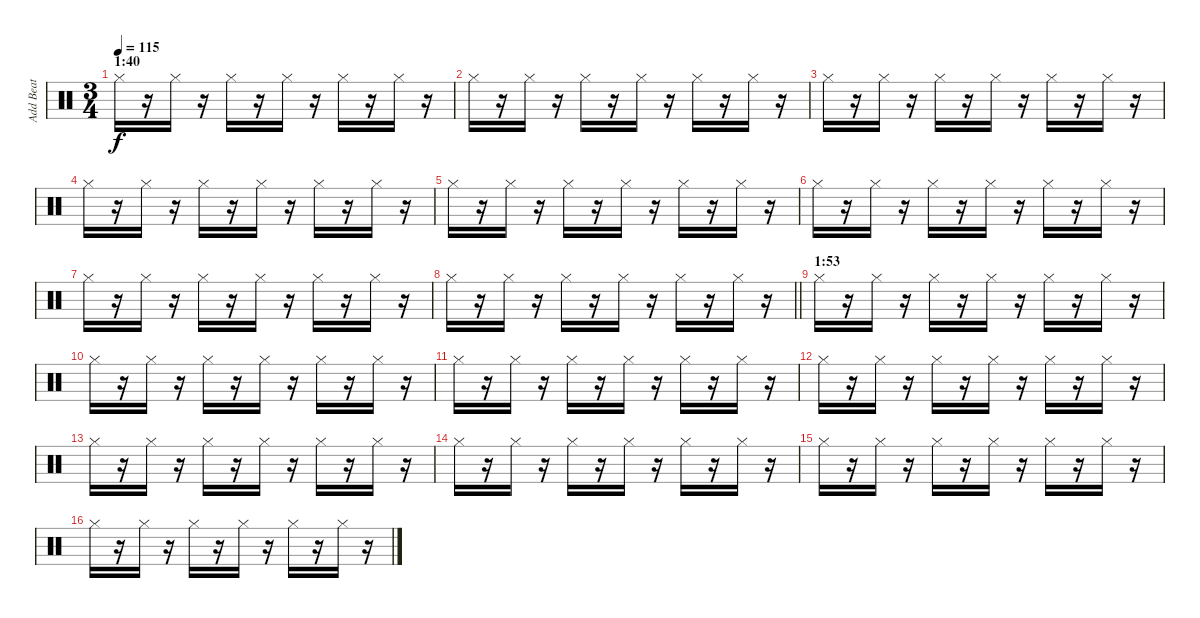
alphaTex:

\track ("Add Beat" "Add Beat") {instrument percussion}
\staff {score}
\articulation defaults
\ts (3 4)
\section ("" "1:40")
\tempo 115
\clef neutral
\ks c "Hi-Hat (closed)".16{dy f}
r.16 "Hi-Hat (closed)".16 r.16 "Hi-Hat (closed)".16 r.16 "Hi-Hat (closed)".16 r.16 "Hi-Hat (closed)".16 r.16 "Hi-Hat (closed)".16 r.16 |
"Hi-Hat (closed)".16 r.16 "Hi-Hat (closed)".16 r.16 "Hi-Hat (closed)".16 r.16 "Hi-Hat (closed)".16 r.16 "Hi-Hat (closed)".16 r.16 "Hi-Hat (closed)".16 r.16 |
"Hi-Hat (closed)".16 r.16 "Hi-Hat (closed)".16 r.16 "Hi-Hat (closed)".16 r.16 "Hi-Hat (closed)".16 r.16 "Hi-Hat (closed)".16 r.16 "Hi-Hat (closed)".16 r.16 |
"Hi-Hat (closed)".16 r.16 "Hi-Hat (closed)".16 r.16 "Hi-Hat (closed)".16 r.16 "Hi-Hat (closed)".16 r.16 "Hi-Hat (closed)".16 r.16 "Hi-Hat (closed)".16 r.16 |
"Hi-Hat (closed)".16 r.16 "Hi-Hat (closed)".16 r.16 "Hi-Hat (closed)".16 r.16 "Hi-Hat (closed)".16 r.16 "Hi-Hat (closed)".16 r.16 "Hi-Hat (closed)".16 r.16 |
"Hi-Hat (closed)".16 r.16 "Hi-Hat (closed)".16 r.16 "Hi-Hat (closed)".16 r.16 "Hi-Hat (closed)".16 r.16 "Hi-Hat (closed)".16 r.16 "Hi-Hat (closed)".16 r.16 |
"Hi-Hat (closed)".16 r.16 "Hi-Hat (closed)".16 r.16 "Hi-Hat (closed)".16 r.16 "Hi-Hat (closed)".16 r.16 "Hi-Hat (closed)".16 r.16 "Hi-Hat (closed)".16 r.16 |
\barLineRight lightlight "Hi-Hat (closed)".16
r.16 "Hi-Hat (closed)".16 r.16 "Hi-Hat (closed)".16 r.16 "Hi-Hat (closed)".16 r.16 "Hi-Hat (closed)".16 r.16 "Hi-Hat (closed)".16 r.16 |
\section ("" "1:53")
"Hi-Hat (closed)".16 r.16 "Hi-Hat (closed)".16 r.16 "Hi-Hat (closed)".16 r.16 "Hi-Hat (closed)".16 r.16 "Hi-Hat (closed)".16 r.16 "Hi-Hat (closed)".16 r.16 |
"Hi-Hat (closed)".16 r.16 "Hi-Hat (closed)".16 r.16 "Hi-Hat (closed)".16 r.16 "Hi-Hat (closed)".16 r.16 "Hi-Hat (closed)".16 r.16 "Hi-Hat (closed)".16 r.16 |
"Hi-Hat (closed)".16 r.16 "Hi-Hat (closed)".16 r.16 "Hi-Hat (closed)".16 r.16 "Hi-Hat (closed)".16 r.16 "Hi-Hat (closed)".16 r.16 "Hi-Hat (closed)".16 r.16 |
"Hi-Hat (closed)".16 r.16 "Hi-Hat (closed)".16 r.16 "Hi-Hat (closed)".16 r.16 "Hi-Hat (closed)".16 r.16 "Hi-Hat (closed)".16 r.16 "Hi-Hat (closed)".16 r.16 |
"Hi-Hat (closed)".16 r.16 "Hi-Hat (closed)".16 r.16 "Hi-Hat (closed)".16 r.16 "Hi-Hat (closed)".16 r.16 "Hi-Hat (closed)".16 r.16 "Hi-Hat (closed)".16 r.16 |
"Hi-Hat (closed)".16 r.16 "Hi-Hat (closed)".16 r.16 "Hi-Hat (closed)".16 r.16 "Hi-Hat (closed)".16 r.16 "Hi-Hat (closed)".16 r.16 "Hi-Hat (closed)".16 r.16 |
"Hi-Hat (closed)".16 r.16 "Hi-Hat (closed)".16 r.16 "Hi-Hat (closed)".16 r.16 "Hi-Hat (closed)".16 r.16 "Hi-Hat (closed)".16 r.16 "Hi-Hat (closed)".16 r.16 |
"Hi-Hat (closed)".16 r.16 "Hi-Hat (closed)".16 r.16 "Hi-Hat (closed)".16 r.16 "Hi-Hat (closed)".16 r.16 "Hi-Hat (closed)".16 r.16 "Hi-Hat (closed)".16 r.16
